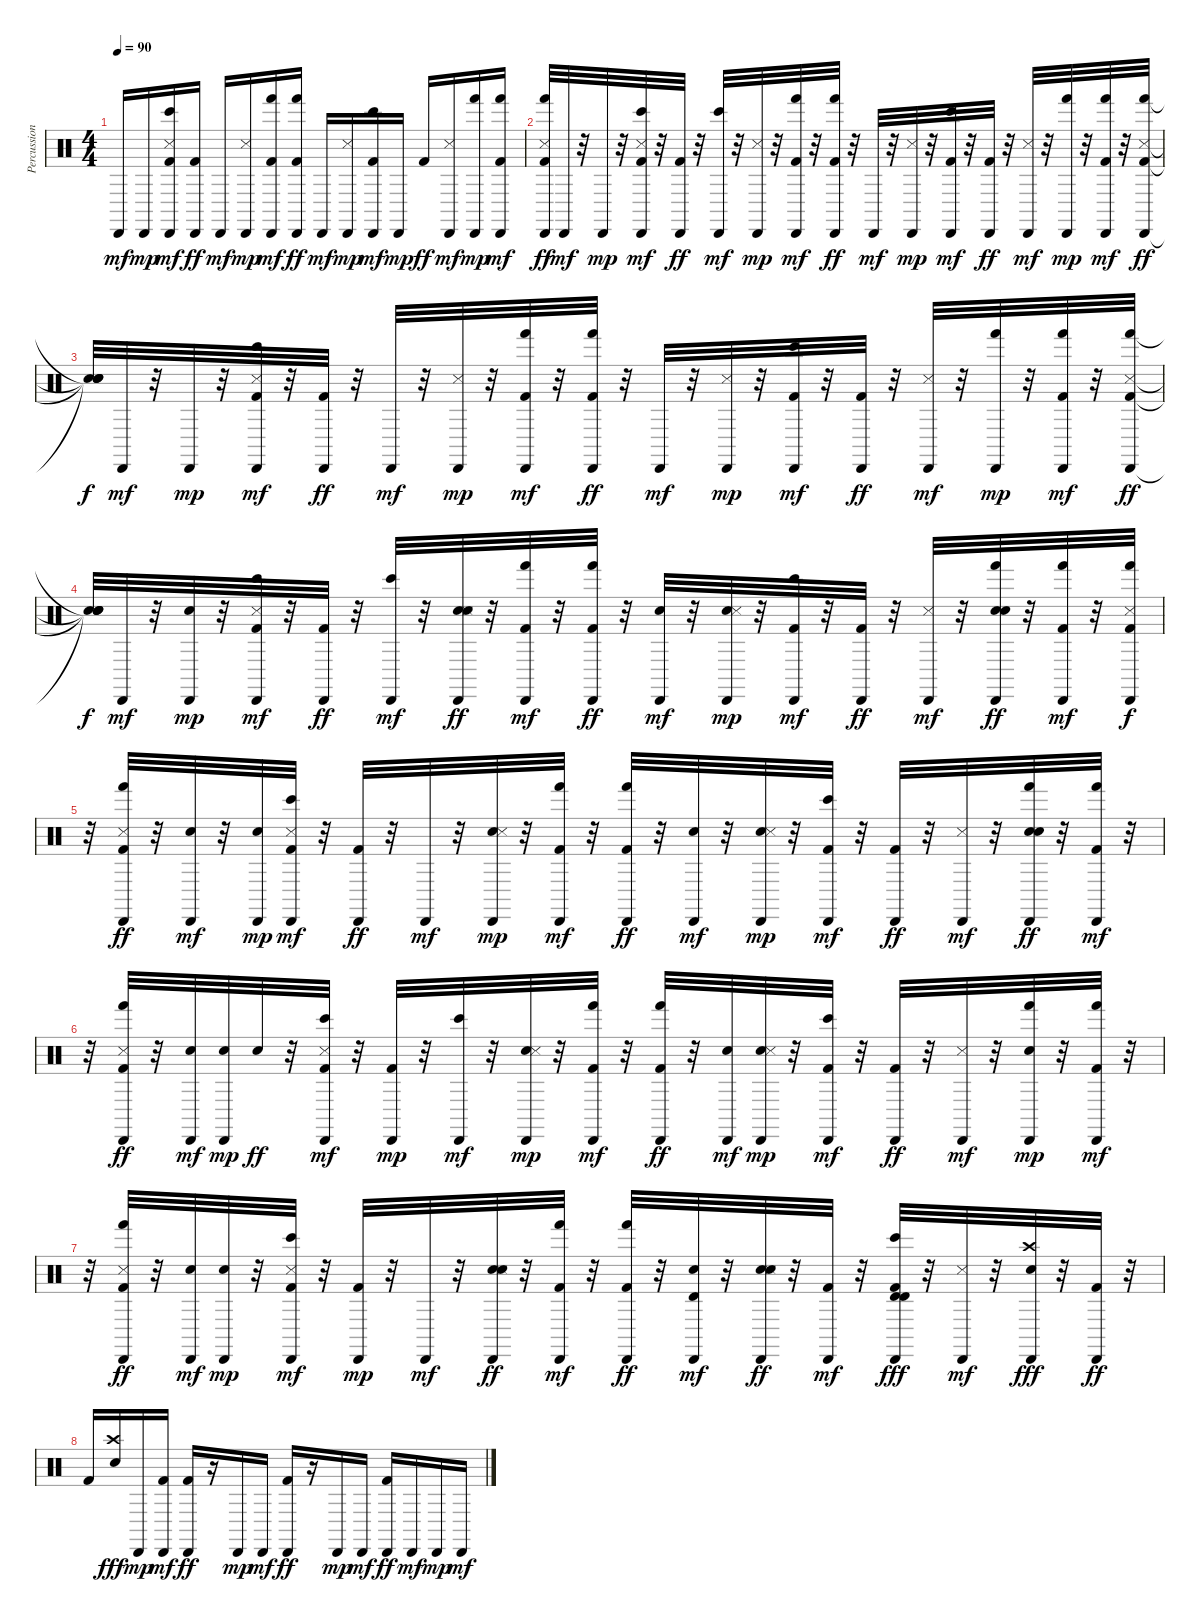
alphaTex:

\track ("Percussions" "Percussion") {instrument percussion}
\staff {score}
\articulation defaults
\ts (4 4)
\tempo 90
\clef neutral
\ks c "Cabasa (hit)".16{dy mf} "Cabasa (hit)".16{dy mp}
("Bongo High (hit)" "Cabasa (hit)" "Snare (side stick) 3" "Kick (hit) 2").16{dy mf} ("Cabasa (hit)" "Kick (hit) 2").16{dy ff} "Cabasa (hit)".16{dy mf} ("Cabasa (hit)" "Snare (side stick) 3").16{dy mp} ("Hand (hit)" "Cabasa (hit)" "Kick (hit) 2").16{dy mf} ("Hand (hit)" "Cabasa (hit)" "Kick (hit) 2").16{dy ff} "Cabasa (hit)".16{dy mf} ("Cabasa (hit)" "Snare (side stick) 3").16{dy mp} ("Bongo High (hit)" "Cabasa (hit)" "Kick (hit) 2").16{dy mf} "Cabasa (hit)".16{dy mp} "Kick (hit) 2".16{dy ff} ("Cabasa (hit)" "Snare (side stick) 3").16{dy mf} ("Hand (hit)" "Cabasa (hit)").16{dy mp} ("Hand (hit)" "Cabasa (hit)" "Kick (hit) 2").16{dy mf} |
("Hand (hit)" "Cabasa (hit)" "Snare (side stick) 3" "Kick (hit) 2").32{dy ff} "Cabasa (hit)".32{dy mf} r.32 "Cabasa (hit)".32{dy mp} r.32 ("Bongo High (hit)" "Cabasa (hit)" "Snare (side stick) 3" "Kick (hit) 2").32{dy mf} r.32 ("Cabasa (hit)" "Kick (hit) 2").32{dy ff} r.32 ("Bongo High (hit)" "Cabasa (hit)").32{dy mf} r.32 ("Cabasa (hit)" "Snare (side stick) 3").32{dy mp} r.32 ("Hand (hit)" "Cabasa (hit)" "Kick (hit) 2").32{dy mf} r.32 ("Hand (hit)" "Cabasa (hit)" "Kick (hit) 2").32{dy ff} r.32 "Cabasa (hit)".32{dy mf} r.32 ("Cabasa (hit)" "Snare (side stick) 3").32{dy mp} r.32 ("Bongo High (hit)" "Cabasa (hit)" "Kick (hit) 2").32{dy mf} r.32 ("Cabasa (hit)" "Kick (hit) 2").32{dy ff} r.32 ("Cabasa (hit)" "Snare (side stick) 3").32{dy mf} r.32 ("Hand (hit)" "Cabasa (hit)").32{dy mp} r.32 ("Hand (hit)" "Cabasa (hit)" "Kick (hit) 2").32{dy mf} r.32 ("Hand (hit)" "Cabasa (hit)" "Snare (side stick) 3" "Kick (hit) 2").32{dy ff} |
("Snare (hit)"{t} "Snare (hit)"{t} "Snare (hit)"{t} "Snare (hit)"{t}).32{dy f} "Cabasa (hit)".32{dy mf} r.32 "Cabasa (hit)".32{dy mp} r.32 ("Bongo High (hit)" "Cabasa (hit)" "Snare (side stick) 3" "Kick (hit) 2").32{dy mf} r.32 ("Cabasa (hit)" "Kick (hit) 2").32{dy ff} r.32 "Cabasa (hit)".32{dy mf} r.32 ("Cabasa (hit)" "Snare (side stick) 3").32{dy mp} r.32 ("Hand (hit)" "Cabasa (hit)" "Kick (hit) 2").32{dy mf} r.32 ("Hand (hit)" "Cabasa (hit)" "Kick (hit) 2").32{dy ff} r.32 "Cabasa (hit)".32{dy mf} r.32 ("Cabasa (hit)" "Snare (side stick) 3").32{dy mp} r.32 ("Bongo High (hit)" "Cabasa (hit)" "Kick (hit) 2").32{dy mf} r.32 ("Cabasa (hit)" "Kick (hit) 2").32{dy ff} r.32 ("Cabasa (hit)" "Snare (side stick) 3").32{dy mf} r.32 ("Hand (hit)" "Cabasa (hit)").32{dy mp} r.32 ("Hand (hit)" "Cabasa (hit)" "Kick (hit) 2").32{dy mf} r.32 ("Hand (hit)" "Cabasa (hit)" "Snare (side stick) 3" "Kick (hit) 2").32{dy ff} |
("Snare (hit)"{t} "Snare (hit)"{t} "Snare (hit)"{t} "Snare (hit)"{t}).32{dy f} "Cabasa (hit)".32{dy mf} r.32 ("Hand Clap (hit)" "Cabasa (hit)").32{dy mp} r.32 ("Bongo High (hit)" "Cabasa (hit)" "Snare (side stick) 3" "Kick (hit) 2").32{dy mf} r.32 ("Cabasa (hit)" "Kick (hit) 2").32{dy ff} r.32 ("Bongo High (hit)" "Cabasa (hit)").32{dy mf} r.32 ("Hand Clap (hit)" "Cabasa (hit)" "Snare (side stick) 3" "Hand Clap (hit)").32{dy ff} r.32 ("Hand (hit)" "Cabasa (hit)" "Kick (hit) 2").32{dy mf} r.32 ("Hand (hit)" "Cabasa (hit)" "Kick (hit) 2").32{dy ff} r.32 ("Hand Clap (hit)" "Cabasa (hit)").32{dy mf} r.32 ("Hand Clap (hit)" "Cabasa (hit)" "Snare (side stick) 3").32{dy mp} r.32 ("Bongo High (hit)" "Cabasa (hit)" "Kick (hit) 2").32{dy mf} r.32 ("Cabasa (hit)" "Kick (hit) 2").32{dy ff} r.32 ("Cabasa (hit)" "Snare (side stick) 3").32{dy mf} r.32 ("Hand Clap (hit)" "Hand (hit)" "Cabasa (hit)" "Hand Clap (hit)").32{dy ff} r.32 ("Hand (hit)" "Cabasa (hit)" "Kick (hit) 2").32{dy mf} r.32 ("Hand (hit)" "Cabasa (hit)" "Snare (side stick) 3" "Kick (hit) 2").32{dy f} |
r.32 ("Hand (hit)" "Cabasa (hit)" "Snare (side stick) 3" "Kick (hit) 2").32{dy ff} r.32 ("Hand Clap (hit)" "Cabasa (hit)").32{dy mf} r.32 ("Hand Clap (hit)" "Cabasa (hit)").32{dy mp} ("Bongo High (hit)" "Cabasa (hit)" "Snare (side stick) 3" "Kick (hit) 2").32{dy mf} r.32 ("Cabasa (hit)" "Kick (hit) 2").32{dy ff} r.32 "Cabasa (hit)".32{dy mf} r.32 ("Hand Clap (hit)" "Cabasa (hit)" "Snare (side stick) 3").32{dy mp} r.32 ("Hand (hit)" "Cabasa (hit)" "Kick (hit) 2").32{dy mf} r.32 ("Hand (hit)" "Cabasa (hit)" "Kick (hit) 2").32{dy ff} r.32 ("Hand Clap (hit)" "Cabasa (hit)").32{dy mf} r.32 ("Hand Clap (hit)" "Cabasa (hit)" "Snare (side stick) 3").32{dy mp} r.32 ("Bongo High (hit)" "Cabasa (hit)" "Kick (hit) 2").32{dy mf} r.32 ("Cabasa (hit)" "Kick (hit) 2").32{dy ff} r.32 ("Cabasa (hit)" "Snare (side stick) 3").32{dy mf} r.32 ("Hand Clap (hit)" "Hand (hit)" "Cabasa (hit)" "Hand Clap (hit)").32{dy ff} r.32 ("Hand (hit)" "Cabasa (hit)" "Kick (hit) 2").32{dy mf} r.32 |
r.32 ("Hand (hit)" "Cabasa (hit)" "Snare (side stick) 3" "Kick (hit) 2").32{dy ff} r.32 ("Hand Clap (hit)" "Cabasa (hit)").32{dy mf} ("Hand Clap (hit)" "Cabasa (hit)").32{dy mp} "Hand Clap (hit)".32{dy ff} r.32 ("Bongo High (hit)" "Cabasa (hit)" "Snare (side stick) 3" "Kick (hit) 2").32{dy mf} r.32 ("Kick (hit) 2" "Cabasa (hit)").32{dy mp} r.32 ("Bongo High (hit)" "Cabasa (hit)").32{dy mf} r.32 ("Hand Clap (hit)" "Cabasa (hit)" "Snare (side stick) 3").32{dy mp} r.32 ("Hand (hit)" "Cabasa (hit)" "Kick (hit) 2").32{dy mf} r.32 ("Hand (hit)" "Cabasa (hit)" "Kick (hit) 2").32{dy ff} r.32 ("Cabasa (hit)" "Hand Clap (hit)").32{dy mf} ("Hand Clap (hit)" "Cabasa (hit)" "Snare (side stick) 3").32{dy mp} r.32 ("Bongo High (hit)" "Cabasa (hit)" "Kick (hit) 2").32{dy mf} r.32 ("Cabasa (hit)" "Kick (hit) 2").32{dy ff} r.32 ("Snare (side stick) 3" "Cabasa (hit)").32{dy mf} r.32 ("Hand Clap (hit)" "Hand (hit)" "Cabasa (hit)").32{dy mp} r.32 ("Hand (hit)" "Cabasa (hit)" "Kick (hit) 2").32{dy mf} r.32 |
r.32 ("Hand (hit)" "Cabasa (hit)" "Snare (side stick) 3" "Kick (hit) 2").32{dy ff} r.32 ("Hand Clap (hit)" "Cabasa (hit)").32{dy mf} ("Hand Clap (hit)" "Cabasa (hit)").32{dy mp} r.32 ("Bongo High (hit)" "Cabasa (hit)" "Snare (side stick) 3" "Kick (hit) 2").32{dy mf} r.32 ("Kick (hit) 2" "Cabasa (hit)").32{dy mp} r.32 "Cabasa (hit)".32{dy mf} r.32 ("Cabasa (hit)" "Hand Clap (hit)" "Snare (side stick) 3" "Hand Clap (hit)").32{dy ff} r.32 ("Kick (hit) 2" "Hand (hit)" "Cabasa (hit)").32{dy mf} r.32 ("Hand (hit)" "Cabasa (hit)" "Kick (hit) 2").32{dy ff} r.32 ("Hand Clap (hit)" "Timbale high (hit)" "Cabasa (hit)").32{dy mf} r.32 ("Hand Clap (hit)" "Cabasa (hit)" "Snare (side stick) 3" "Hand Clap (hit)").32{dy ff} r.32 ("Cabasa (hit)" "Kick (hit) 2").32{dy mf} r.32 ("Bongo High (hit)" "Timbale high (hit)" "Cabasa (hit)" "Kick (hit) 2" "Timbale high (hit)").32{dy fff} r.32 ("Snare (side stick) 3" "Cabasa (hit)").32{dy mf} r.32 ("Cabasa (hit)" "Crash high (hit)" "Snare (hit) 2").32{dy fff} r.32 ("Cabasa (hit)" "Kick (hit) 2").32{dy ff} r.32 |
"Kick (hit) 2".16 ("Crash high (hit)" "Snare (hit) 2").16{dy fff} "Cabasa (hit)".16{dy mp} ("Cabasa (hit)" "Kick (hit) 2").16{dy mf} ("Cabasa (hit)" "Kick (hit) 2").16{dy ff} r.16 "Cabasa (hit)".16{dy mp} "Cabasa (hit)".16{dy mf} ("Cabasa (hit)" "Kick (hit) 2").16{dy ff} r.16 "Cabasa (hit)".16{dy mp} "Cabasa (hit)".16{dy mf} ("Cabasa (hit)" "Kick (hit) 2").16{dy ff} "Cabasa (hit)".16{dy mf} "Cabasa (hit)".16{dy mp} "Cabasa (hit)".16{dy mf}
